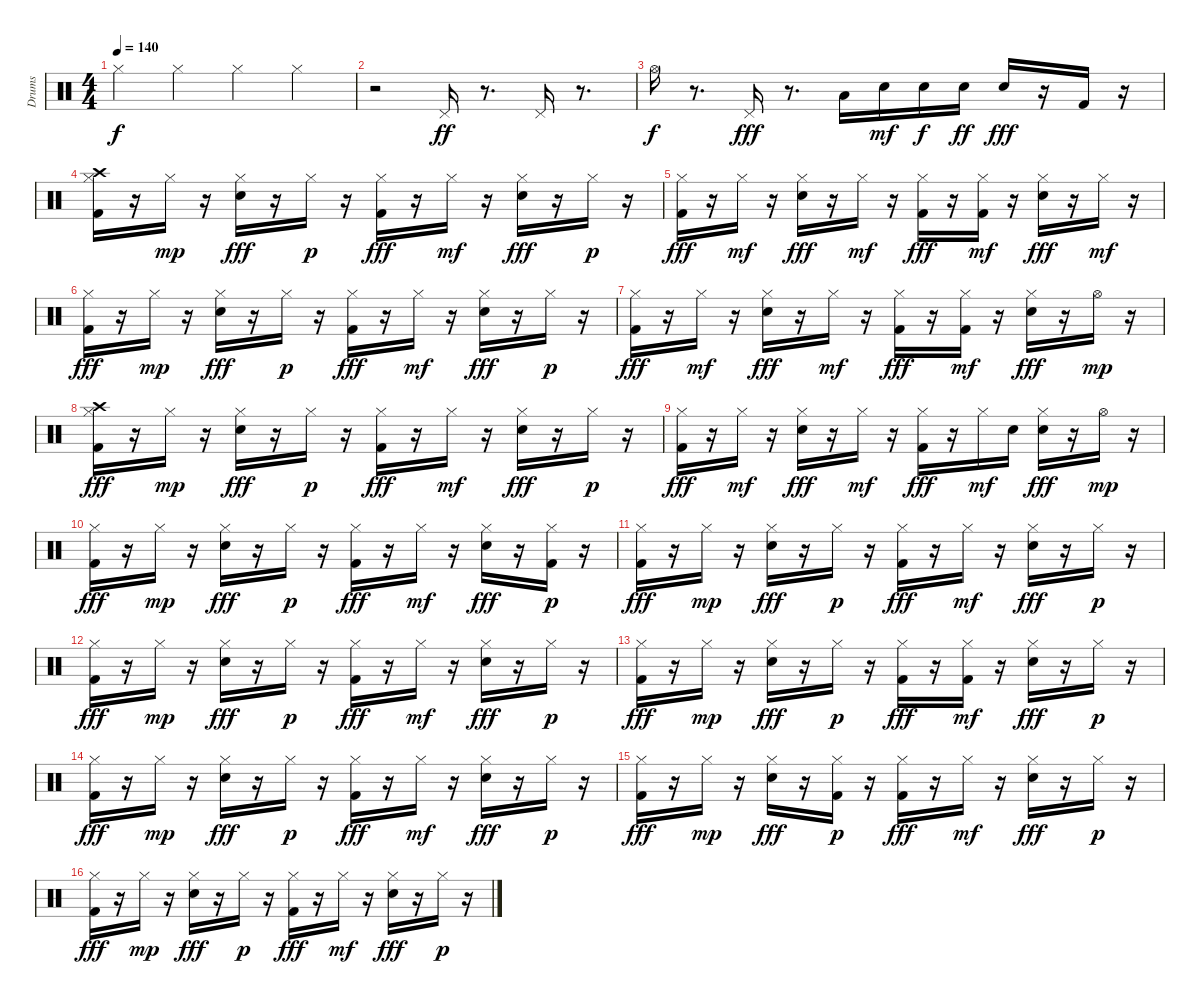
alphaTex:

\track ("Drums" "Drums") {instrument percussion}
\staff {score}
\articulation defaults
\ts (4 4)
\tempo 140
\clef neutral
\ks c "Hi-Hat (closed)".4{dy f} "Hi-Hat (closed)".4 "Hi-Hat (closed)".4 "Hi-Hat (closed)".4
|
r.2 "Pedal Hi-Hat (hit)".16{dy ff} r.8{d} "Pedal Hi-Hat (hit)".16 r.8{d} |
"Hi-Hat (open)".16{dy f} r.8{d} "Pedal Hi-Hat (hit)".16{dy fff} r.8{d} "Low Tom (hit)".16 "Electric Snare (hit)".16{dy mf} "Electric Snare (hit)".16{dy f} "Electric Snare (hit)".16{dy ff} "Electric Snare (hit)".16{dy fff} r.16 "Kick (hit) 2".16 r.16 |
("Kick (hit) 2" "Hi-Hat (closed)" "Crash high (hit)").16 r.16 "Hi-Hat (closed)".16{dy mp} r.16 ("Electric Snare (hit)" "Hi-Hat (closed)").16{dy fff} r.16 "Hi-Hat (closed)".16{dy p} r.16 ("Kick (hit) 2" "Hi-Hat (closed)").16{dy fff} r.16 "Hi-Hat (closed)".16{dy mf} r.16 ("Electric Snare (hit)" "Hi-Hat (closed)").16{dy fff} r.16 "Hi-Hat (closed)".16{dy p} r.16 |
("Kick (hit) 2" "Hi-Hat (closed)").16{dy fff} r.16 "Hi-Hat (closed)".16{dy mf} r.16 ("Electric Snare (hit)" "Hi-Hat (closed)").16{dy fff} r.16 "Hi-Hat (closed)".16{dy mf} r.16 ("Kick (hit) 2" "Hi-Hat (closed)").16{dy fff} r.16 ("Kick (hit) 2" "Hi-Hat (closed)").16{dy mf} r.16 ("Electric Snare (hit)" "Hi-Hat (closed)").16{dy fff} r.16 "Hi-Hat (closed)".16{dy mf} r.16 |
("Kick (hit) 2" "Hi-Hat (closed)").16{dy fff} r.16 "Hi-Hat (closed)".16{dy mp} r.16 ("Electric Snare (hit)" "Hi-Hat (closed)").16{dy fff} r.16 "Hi-Hat (closed)".16{dy p} r.16 ("Kick (hit) 2" "Hi-Hat (closed)").16{dy fff} r.16 "Hi-Hat (closed)".16{dy mf} r.16 ("Electric Snare (hit)" "Hi-Hat (closed)").16{dy fff} r.16 "Hi-Hat (closed)".16{dy p} r.16 |
("Kick (hit) 2" "Hi-Hat (closed)").16{dy fff} r.16 "Hi-Hat (closed)".16{dy mf} r.16 ("Electric Snare (hit)" "Hi-Hat (closed)").16{dy fff} r.16 "Hi-Hat (closed)".16{dy mf} r.16 ("Kick (hit) 2" "Hi-Hat (closed)").16{dy fff} r.16 ("Kick (hit) 2" "Hi-Hat (closed)").16{dy mf} r.16 ("Electric Snare (hit)" "Hi-Hat (closed)").16{dy fff} r.16 "Hi-Hat (open)".16{dy mp} r.16 |
("Kick (hit) 2" "Hi-Hat (closed)" "Crash high (hit)").16{dy fff} r.16 "Hi-Hat (closed)".16{dy mp} r.16 ("Electric Snare (hit)" "Hi-Hat (closed)").16{dy fff} r.16 "Hi-Hat (closed)".16{dy p} r.16 ("Kick (hit) 2" "Hi-Hat (closed)").16{dy fff} r.16 "Hi-Hat (closed)".16{dy mf} r.16 ("Electric Snare (hit)" "Hi-Hat (closed)").16{dy fff} r.16 "Hi-Hat (closed)".16{dy p} r.16 |
("Kick (hit) 2" "Hi-Hat (closed)").16{dy fff} r.16 "Hi-Hat (closed)".16{dy mf} r.16 ("Electric Snare (hit)" "Hi-Hat (closed)").16{dy fff} r.16 "Hi-Hat (closed)".16{dy mf} r.16 ("Kick (hit) 2" "Hi-Hat (closed)").16{dy fff} r.16 "Hi-Hat (closed)".16{dy mf} "Electric Snare (hit)".16 ("Electric Snare (hit)" "Hi-Hat (closed)").16{dy fff} r.16 "Hi-Hat (open)".16{dy mp} r.16 |
("Kick (hit) 2" "Hi-Hat (closed)").16{dy fff} r.16 "Hi-Hat (closed)".16{dy mp} r.16 ("Electric Snare (hit)" "Hi-Hat (closed)").16{dy fff} r.16 "Hi-Hat (closed)".16{dy p} r.16 ("Kick (hit) 2" "Hi-Hat (closed)").16{dy fff} r.16 "Hi-Hat (closed)".16{dy mf} r.16 ("Electric Snare (hit)" "Hi-Hat (closed)").16{dy fff} r.16 ("Kick (hit) 2" "Hi-Hat (closed)").16{dy p} r.16 |
("Kick (hit) 2" "Hi-Hat (closed)").16{dy fff} r.16 "Hi-Hat (closed)".16{dy mp} r.16 ("Electric Snare (hit)" "Hi-Hat (closed)").16{dy fff} r.16 "Hi-Hat (closed)".16{dy p} r.16 ("Kick (hit) 2" "Hi-Hat (closed)").16{dy fff} r.16 "Hi-Hat (closed)".16{dy mf} r.16 ("Electric Snare (hit)" "Hi-Hat (closed)").16{dy fff} r.16 "Hi-Hat (closed)".16{dy p} r.16 |
("Kick (hit) 2" "Hi-Hat (closed)").16{dy fff} r.16 "Hi-Hat (closed)".16{dy mp} r.16 ("Electric Snare (hit)" "Hi-Hat (closed)").16{dy fff} r.16 "Hi-Hat (closed)".16{dy p} r.16 ("Kick (hit) 2" "Hi-Hat (closed)").16{dy fff} r.16 "Hi-Hat (closed)".16{dy mf} r.16 ("Electric Snare (hit)" "Hi-Hat (closed)").16{dy fff} r.16 "Hi-Hat (closed)".16{dy p} r.16 |
("Kick (hit) 2" "Hi-Hat (closed)").16{dy fff} r.16 "Hi-Hat (closed)".16{dy mp} r.16 ("Electric Snare (hit)" "Hi-Hat (closed)").16{dy fff} r.16 "Hi-Hat (closed)".16{dy p} r.16 ("Kick (hit) 2" "Hi-Hat (closed)").16{dy fff} r.16 ("Kick (hit) 2" "Hi-Hat (closed)").16{dy mf} r.16 ("Electric Snare (hit)" "Hi-Hat (closed)").16{dy fff} r.16 "Hi-Hat (closed)".16{dy p} r.16 |
("Kick (hit) 2" "Hi-Hat (closed)").16{dy fff} r.16 "Hi-Hat (closed)".16{dy mp} r.16 ("Electric Snare (hit)" "Hi-Hat (closed)").16{dy fff} r.16 "Hi-Hat (closed)".16{dy p} r.16 ("Kick (hit) 2" "Hi-Hat (closed)").16{dy fff} r.16 "Hi-Hat (closed)".16{dy mf} r.16 ("Electric Snare (hit)" "Hi-Hat (closed)").16{dy fff} r.16 "Hi-Hat (closed)".16{dy p} r.16 |
("Kick (hit) 2" "Hi-Hat (closed)").16{dy fff} r.16 "Hi-Hat (closed)".16{dy mp} r.16 ("Electric Snare (hit)" "Hi-Hat (closed)").16{dy fff} r.16 ("Kick (hit) 2" "Hi-Hat (closed)").16{dy p} r.16 ("Kick (hit) 2" "Hi-Hat (closed)").16{dy fff} r.16 "Hi-Hat (closed)".16{dy mf} r.16 ("Electric Snare (hit)" "Hi-Hat (closed)").16{dy fff} r.16 "Hi-Hat (closed)".16{dy p} r.16 |
("Kick (hit) 2" "Hi-Hat (closed)").16{dy fff} r.16 "Hi-Hat (closed)".16{dy mp} r.16 ("Electric Snare (hit)" "Hi-Hat (closed)").16{dy fff} r.16 "Hi-Hat (closed)".16{dy p} r.16 ("Kick (hit) 2" "Hi-Hat (closed)").16{dy fff} r.16 "Hi-Hat (closed)".16{dy mf} r.16 ("Electric Snare (hit)" "Hi-Hat (closed)").16{dy fff} r.16 "Hi-Hat (closed)".16{dy p} r.16
